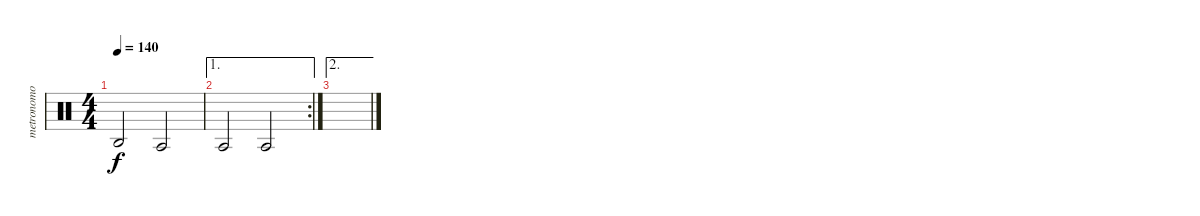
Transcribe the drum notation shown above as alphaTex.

\track ("metronomo" "metronomo") {mute instrument percussion}
\staff {score}
\articulation defaults
\ts (4 4)
\tempo 140
\clef neutral
\ks c "Agogo high (hit)".2{dy f} "Agogo tow (hit)".2
|
\ae 1
\rc 2 "Agogo tow (hit)".2 "Agogo tow (hit)".2
|
\ae 2
